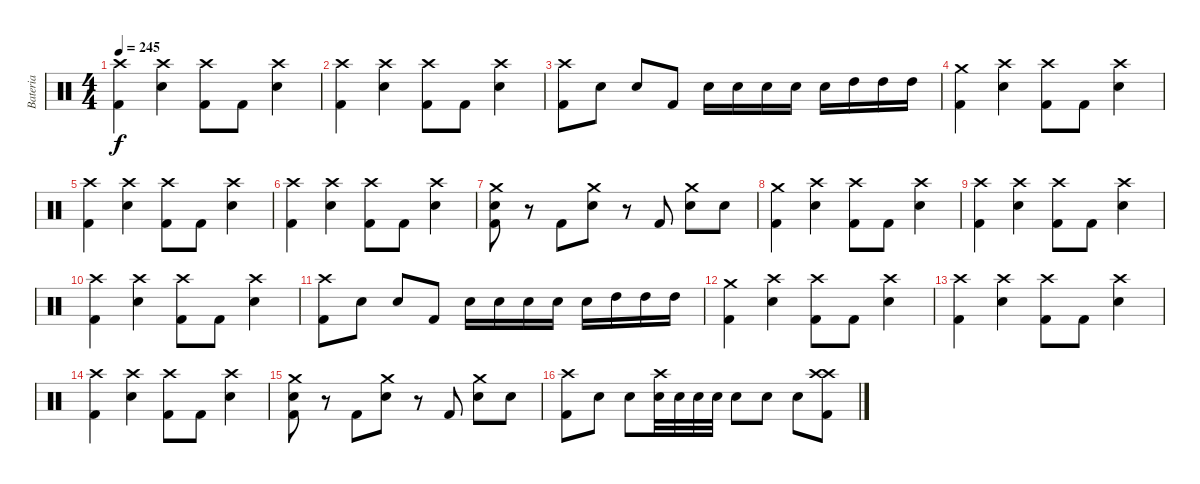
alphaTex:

\track ("Bateria" "Bateria") {instrument percussion}
\staff {score}
\articulation defaults
\ts (4 4)
\tempo 245
\clef neutral
\ks c
("Crash high (hit)" "Kick (hit) 2").4{dy f} ("Crash high (hit)" "Electric Snare (hit)").4 ("Crash high (hit)" "Kick (hit) 2").8 "Kick (hit) 2".8 ("Crash high (hit)" "Electric Snare (hit)").4 |
("Crash high (hit)" "Kick (hit) 2").4 ("Crash high (hit)" "Electric Snare (hit)").4 ("Crash high (hit)" "Kick (hit) 2").8 "Kick (hit) 2".8 ("Crash high (hit)" "Electric Snare (hit)").4 |
("Crash high (hit)" "Kick (hit) 2").8 "Electric Snare (hit)".8 "Electric Snare (hit)".8 "Kick (hit) 2".8 "Electric Snare (hit)".16 "Electric Snare (hit)".16 "Electric Snare (hit)".16 "Electric Snare (hit)".16 "Electric Snare (hit)".16 "High Tom (hit)".16 "High Tom (hit)".16 "High Tom (hit)".16 |
("Crash medium (hit)" "Kick (hit) 2").4 ("Crash high (hit)" "Electric Snare (hit)").4 ("Crash high (hit)" "Kick (hit) 2").8 "Kick (hit) 2".8 ("Crash high (hit)" "Electric Snare (hit)").4 |
("Crash high (hit)" "Kick (hit) 2").4 ("Crash high (hit)" "Electric Snare (hit)").4 ("Crash high (hit)" "Kick (hit) 2").8 "Kick (hit) 2".8 ("Crash high (hit)" "Electric Snare (hit)").4 |
("Crash high (hit)" "Kick (hit) 2").4 ("Crash high (hit)" "Electric Snare (hit)").4 ("Crash high (hit)" "Kick (hit) 2").8 "Kick (hit) 2".8 ("Crash high (hit)" "Electric Snare (hit)").4 |
("Crash medium (hit)" "Electric Snare (hit)" "Kick (hit) 2").8 r.8 "Kick (hit) 2".8 ("Crash medium (hit)" "Electric Snare (hit)").8 r.8 "Kick (hit) 2".8 ("Crash medium (hit)" "Electric Snare (hit)").8 "Electric Snare (hit)".8 |
("Crash medium (hit)" "Kick (hit) 2").4 ("Crash high (hit)" "Electric Snare (hit)").4 ("Crash high (hit)" "Kick (hit) 2").8 "Kick (hit) 2".8 ("Crash high (hit)" "Electric Snare (hit)").4 |
("Crash high (hit)" "Kick (hit) 2").4 ("Crash high (hit)" "Electric Snare (hit)").4 ("Crash high (hit)" "Kick (hit) 2").8 "Kick (hit) 2".8 ("Crash high (hit)" "Electric Snare (hit)").4 |
("Crash high (hit)" "Kick (hit) 2").4 ("Crash high (hit)" "Electric Snare (hit)").4 ("Crash high (hit)" "Kick (hit) 2").8 "Kick (hit) 2".8 ("Crash high (hit)" "Electric Snare (hit)").4 |
("Crash high (hit)" "Kick (hit) 2").8 "Electric Snare (hit)".8 "Electric Snare (hit)".8 "Kick (hit) 2".8 "Electric Snare (hit)".16 "Electric Snare (hit)".16 "Electric Snare (hit)".16 "Electric Snare (hit)".16 "Electric Snare (hit)".16 "High Tom (hit)".16 "High Tom (hit)".16 "High Tom (hit)".16 |
("Crash medium (hit)" "Kick (hit) 2").4 ("Crash high (hit)" "Electric Snare (hit)").4 ("Crash high (hit)" "Kick (hit) 2").8 "Kick (hit) 2".8 ("Crash high (hit)" "Electric Snare (hit)").4 |
("Crash high (hit)" "Kick (hit) 2").4 ("Crash high (hit)" "Electric Snare (hit)").4 ("Crash high (hit)" "Kick (hit) 2").8 "Kick (hit) 2".8 ("Crash high (hit)" "Electric Snare (hit)").4 |
("Crash high (hit)" "Kick (hit) 2").4 ("Crash high (hit)" "Electric Snare (hit)").4 ("Crash high (hit)" "Kick (hit) 2").8 "Kick (hit) 2".8 ("Crash high (hit)" "Electric Snare (hit)").4 |
("Crash medium (hit)" "Electric Snare (hit)" "Kick (hit) 2").8 r.8 "Kick (hit) 2".8 ("Crash medium (hit)" "Electric Snare (hit)").8 r.8 "Kick (hit) 2".8 ("Crash medium (hit)" "Electric Snare (hit)").8 "Electric Snare (hit)".8 |
("Crash high (hit)" "Kick (hit) 2").8 "Electric Snare (hit)".8 "Electric Snare (hit)".8 ("Crash high (hit)" "Electric Snare (hit)").32 "Electric Snare (hit)".32 "Electric Snare (hit)".32 "Electric Snare (hit)".32 "Electric Snare (hit)".8 "Electric Snare (hit)".8 "Electric Snare (hit)".8 ("Crash high (hit)" "Crash high (hit)" "Kick (hit) 2").8
